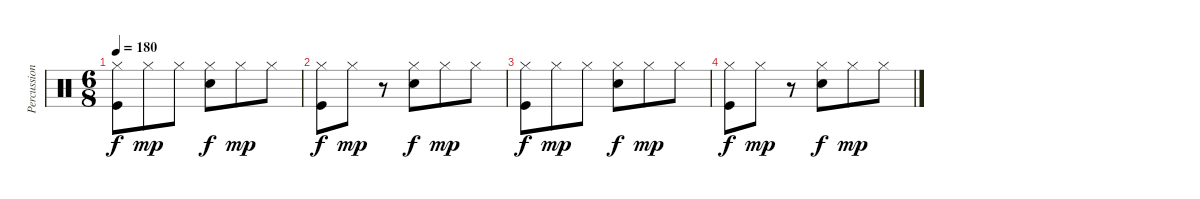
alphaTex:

\track ("Percussions" "Percussion") {instrument percussion}
\staff {score}
\articulation defaults
\ts (6 8)
\tempo 180
\clef neutral
\ks c
("Hi-Hat (closed)" "Kick (hit)").8{dy f} "Hi-Hat (closed)".8{dy mp} "Hi-Hat (closed)".8 ("Hi-Hat (closed)" "Snare (hit) 2").8{dy f} "Hi-Hat (closed)".8{dy mp} "Hi-Hat (closed)".8 |
("Hi-Hat (closed)" "Kick (hit)").8{dy f} "Hi-Hat (closed)".8{dy mp} r.8 ("Hi-Hat (closed)" "Snare (hit) 2").8{dy f} "Hi-Hat (closed)".8{dy mp} "Hi-Hat (closed)".8 |
("Hi-Hat (closed)" "Kick (hit)").8{dy f} "Hi-Hat (closed)".8{dy mp} "Hi-Hat (closed)".8 ("Hi-Hat (closed)" "Snare (hit) 2").8{dy f} "Hi-Hat (closed)".8{dy mp} "Hi-Hat (closed)".8 |
("Hi-Hat (closed)" "Kick (hit)").8{dy f} "Hi-Hat (closed)".8{dy mp} r.8 ("Hi-Hat (closed)" "Snare (hit) 2").8{dy f} "Hi-Hat (closed)".8{dy mp} "Hi-Hat (closed)".8
